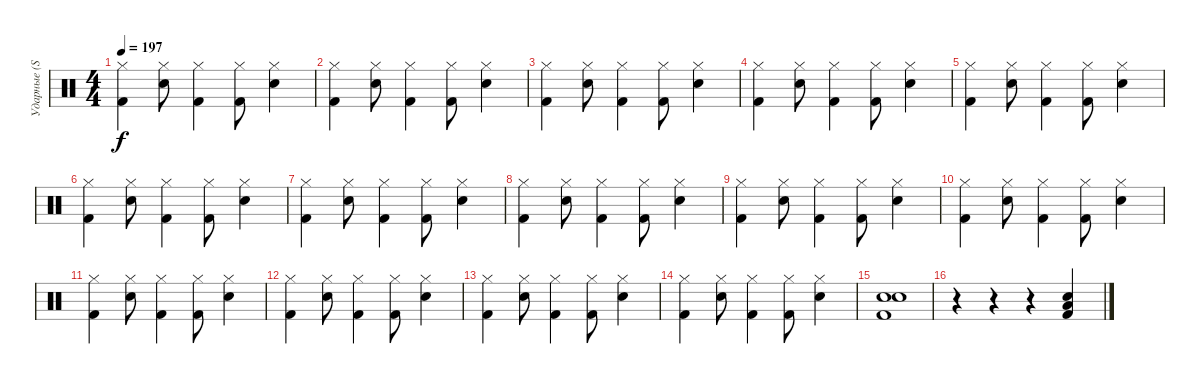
\track ("Ударные (Stevo32)" "Ударные (S") {instrument percussion}
\staff {score}
\articulation defaults
\ts (4 4)
\tempo 197
\clef neutral
\ks c
("Hi-Hat (closed)" "Kick (hit) 2").4{dy f} ("Hi-Hat (closed)" "Snare (hit) 2").8 ("Hi-Hat (closed)" "Kick (hit) 2").4 ("Hi-Hat (closed)" "Kick (hit) 2").8 ("Hi-Hat (closed)" "Snare (hit) 2").4 |
("Hi-Hat (closed)" "Kick (hit) 2").4 ("Hi-Hat (closed)" "Snare (hit) 2").8 ("Hi-Hat (closed)" "Kick (hit) 2").4 ("Hi-Hat (closed)" "Kick (hit) 2").8 ("Hi-Hat (closed)" "Snare (hit) 2").4 |
("Hi-Hat (closed)" "Kick (hit) 2").4 ("Hi-Hat (closed)" "Snare (hit) 2").8 ("Hi-Hat (closed)" "Kick (hit) 2").4 ("Hi-Hat (closed)" "Kick (hit) 2").8 ("Hi-Hat (closed)" "Snare (hit) 2").4 |
("Hi-Hat (closed)" "Kick (hit) 2").4 ("Hi-Hat (closed)" "Snare (hit) 2").8 ("Hi-Hat (closed)" "Kick (hit) 2").4 ("Hi-Hat (closed)" "Kick (hit) 2").8 ("Hi-Hat (closed)" "Snare (hit) 2").4 |
("Hi-Hat (closed)" "Kick (hit) 2").4 ("Hi-Hat (closed)" "Snare (hit) 2").8 ("Hi-Hat (closed)" "Kick (hit) 2").4 ("Hi-Hat (closed)" "Kick (hit) 2").8 ("Hi-Hat (closed)" "Snare (hit) 2").4 |
("Hi-Hat (closed)" "Kick (hit) 2").4 ("Hi-Hat (closed)" "Snare (hit) 2").8 ("Hi-Hat (closed)" "Kick (hit) 2").4 ("Hi-Hat (closed)" "Kick (hit) 2").8 ("Hi-Hat (closed)" "Snare (hit) 2").4 |
("Hi-Hat (closed)" "Kick (hit) 2").4 ("Hi-Hat (closed)" "Snare (hit) 2").8 ("Hi-Hat (closed)" "Kick (hit) 2").4 ("Hi-Hat (closed)" "Kick (hit) 2").8 ("Hi-Hat (closed)" "Snare (hit) 2").4 |
("Hi-Hat (closed)" "Kick (hit) 2").4 ("Hi-Hat (closed)" "Snare (hit) 2").8 ("Hi-Hat (closed)" "Kick (hit) 2").4 ("Hi-Hat (closed)" "Kick (hit) 2").8 ("Hi-Hat (closed)" "Snare (hit) 2").4 |
("Hi-Hat (closed)" "Kick (hit) 2").4 ("Hi-Hat (closed)" "Snare (hit) 2").8 ("Hi-Hat (closed)" "Kick (hit) 2").4 ("Hi-Hat (closed)" "Kick (hit) 2").8 ("Hi-Hat (closed)" "Snare (hit) 2").4 |
("Hi-Hat (closed)" "Kick (hit) 2").4 ("Hi-Hat (closed)" "Snare (hit) 2").8 ("Hi-Hat (closed)" "Kick (hit) 2").4 ("Hi-Hat (closed)" "Kick (hit) 2").8 ("Hi-Hat (closed)" "Snare (hit) 2").4 |
("Hi-Hat (closed)" "Kick (hit) 2").4 ("Hi-Hat (closed)" "Snare (hit) 2").8 ("Hi-Hat (closed)" "Kick (hit) 2").4 ("Hi-Hat (closed)" "Kick (hit) 2").8 ("Hi-Hat (closed)" "Snare (hit) 2").4 |
("Hi-Hat (closed)" "Kick (hit) 2").4 ("Hi-Hat (closed)" "Snare (hit) 2").8 ("Hi-Hat (closed)" "Kick (hit) 2").4 ("Hi-Hat (closed)" "Kick (hit) 2").8 ("Hi-Hat (closed)" "Snare (hit) 2").4 |
("Hi-Hat (closed)" "Kick (hit) 2").4 ("Hi-Hat (closed)" "Snare (hit) 2").8 ("Hi-Hat (closed)" "Kick (hit) 2").4 ("Hi-Hat (closed)" "Kick (hit) 2").8 ("Hi-Hat (closed)" "Snare (hit) 2").4 |
("Hi-Hat (closed)" "Kick (hit) 2").4 ("Hi-Hat (closed)" "Snare (hit) 2").8 ("Hi-Hat (closed)" "Kick (hit) 2").4 ("Hi-Hat (closed)" "Kick (hit) 2").8 ("Hi-Hat (closed)" "Snare (hit) 2").4 |
("Electric Snare (hit)" "Snare (hit) 2" "Kick (hit) 2").1 |
r.4 r.4 r.4 ("Low Floor Tom (hit)" "Snare (hit) 2" "Kick (hit) 2").4
